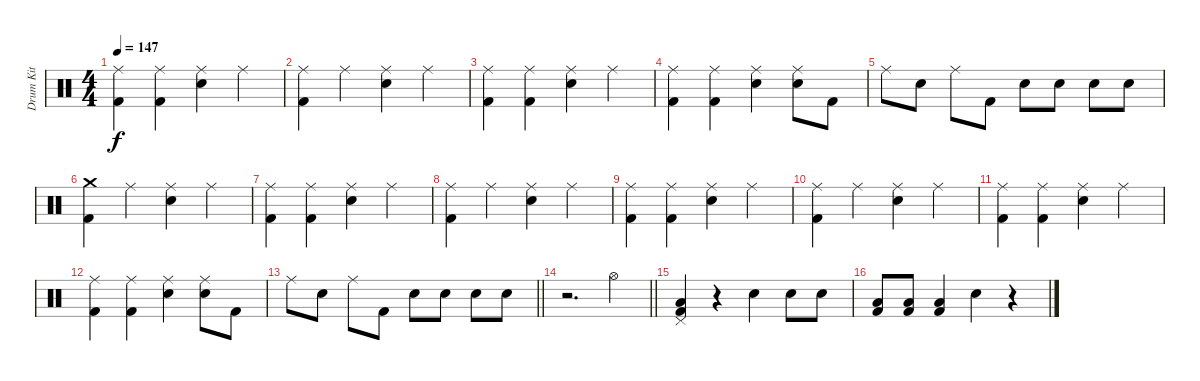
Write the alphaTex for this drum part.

\track ("Drum Kit" "Drum Kit") {instrument percussion}
\staff {score}
\articulation defaults
\ts (4 4)
\tempo 147
\clef neutral
\ks c
("Ride (middle)" "Kick (hit) 2").4{dy f} ("Ride (middle)" "Kick (hit) 2").4 ("Ride (middle)" "Snare (hit) 2").4 "Ride (middle)".4 |
("Ride (middle)" "Kick (hit) 2").4 "Ride (middle)".4 ("Ride (middle)" "Snare (hit) 2").4 "Ride (middle)".4 |
("Ride (middle)" "Kick (hit) 2").4 ("Ride (middle)" "Kick (hit) 2").4 ("Ride (middle)" "Snare (hit) 2").4 "Ride (middle)".4 |
("Ride (middle)" "Kick (hit) 2").4 ("Ride (middle)" "Kick (hit) 2").4 ("Ride (middle)" "Snare (hit) 2").4 ("Ride (middle)" "Snare (hit) 2").8 "Kick (hit) 2".8 |
"Ride (middle)".8 "Snare (hit) 2".8 "Ride (middle)".8 "Kick (hit) 2".8 "Snare (hit) 2".8 "Snare (hit) 2".8 "Snare (hit) 2".8 "Snare (hit) 2".8 |
("Crash medium (hit)" "Kick (hit) 2").4 "Ride (middle)".4 ("Ride (middle)" "Snare (hit) 2").4 "Ride (middle)".4 |
("Ride (middle)" "Kick (hit) 2").4 ("Ride (middle)" "Kick (hit) 2").4 ("Ride (middle)" "Snare (hit) 2").4 "Ride (middle)".4 |
("Ride (middle)" "Kick (hit) 2").4 "Ride (middle)".4 ("Ride (middle)" "Snare (hit) 2").4 "Ride (middle)".4 |
("Ride (middle)" "Kick (hit) 2").4 ("Ride (middle)" "Kick (hit) 2").4 ("Ride (middle)" "Snare (hit) 2").4 "Ride (middle)".4 |
("Ride (middle)" "Kick (hit) 2").4 "Ride (middle)".4 ("Ride (middle)" "Snare (hit) 2").4 "Ride (middle)".4 |
("Ride (middle)" "Kick (hit) 2").4 ("Ride (middle)" "Kick (hit) 2").4 ("Ride (middle)" "Snare (hit) 2").4 "Ride (middle)".4 |
("Ride (middle)" "Kick (hit) 2").4 ("Ride (middle)" "Kick (hit) 2").4 ("Ride (middle)" "Snare (hit) 2").4 ("Ride (middle)" "Snare (hit) 2").8 "Kick (hit) 2".8 |
\barLineRight lightlight "Ride (middle)".8 "Snare (hit) 2".8 "Ride (middle)".8 "Kick (hit) 2".8 "Snare (hit) 2".8 "Snare (hit) 2".8 "Snare (hit) 2".8 "Snare (hit) 2".8
|
\barLineRight lightlight
r.2{d} "Hi-Hat (open)".4 |
("Pedal Hi-Hat (hit)" "Low Floor Tom (hit)" "Kick (hit) 2").4 r.4 "Snare (hit) 2".4 "Snare (hit) 2".8 "Snare (hit) 2".8 |
("Low Floor Tom (hit)" "Kick (hit) 2").8 ("Low Floor Tom (hit)" "Kick (hit) 2").8 ("Low Floor Tom (hit)" "Kick (hit) 2").4 "Snare (hit) 2".4 r.4
